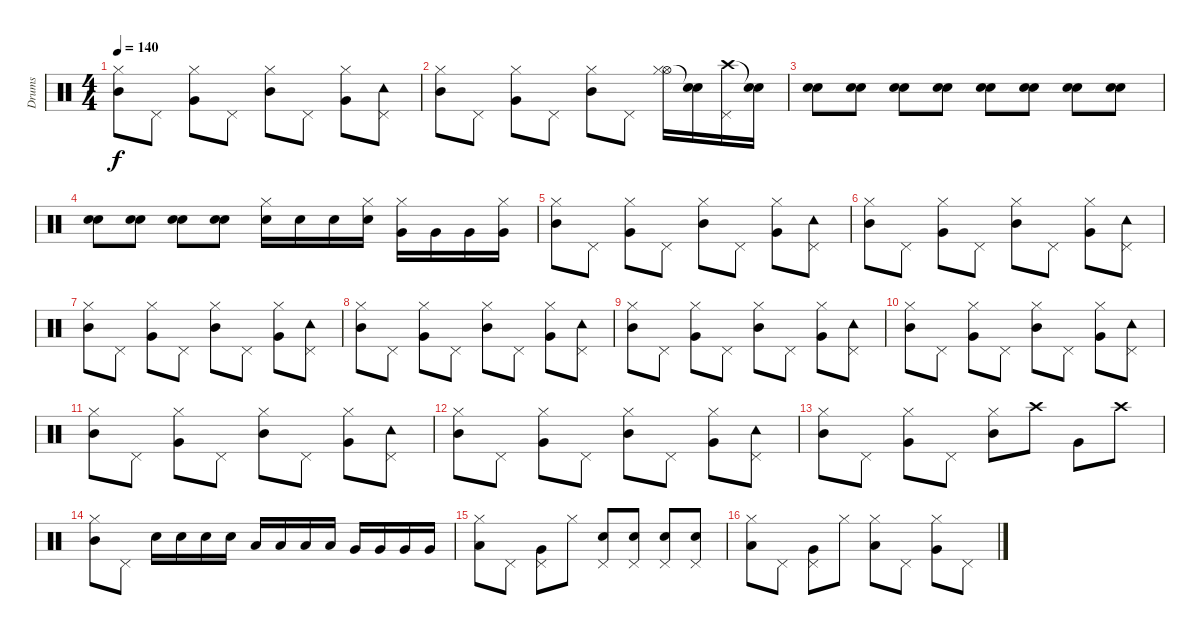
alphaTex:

\track ("Drums" "Drums") {instrument percussion}
\staff {score}
\articulation defaults
\ts (4 4)
\tempo 140
\clef neutral
\ks c
("Mid Tom (hit)" "Hi-Hat (closed)").8{dy f} "Pedal Hi-Hat (hit)".8 ("Very Low Tom (hit)" "Hi-Hat (closed)").8 "Pedal Hi-Hat (hit)".8 ("Mid Tom (hit)" "Hi-Hat (closed)").8 "Pedal Hi-Hat (hit)".8 ("Very Low Tom (hit)" "Hi-Hat (closed)").8 ("Tambourine (hit)" "Pedal Hi-Hat (hit)").8 |
("Mid Tom (hit)" "Hi-Hat (closed)").8 "Pedal Hi-Hat (hit)".8 ("Very Low Tom (hit)" "Hi-Hat (closed)").8 "Pedal Hi-Hat (hit)".8 ("Mid Tom (hit)" "Hi-Hat (closed)").8 "Pedal Hi-Hat (hit)".8 ("Hi-Hat (open)" "Hi-Hat (closed)").16 ("Snare (hit)"{t} "Electric Snare (hit)").16 ("Crash high (hit)" "Pedal Hi-Hat (hit)").16 ("Snare (hit)"{t} "Electric Snare (hit)").16 |
("Snare (hit) 2" "Electric Snare (hit)").8{volume 6} ("Snare (hit) 2" "Electric Snare (hit)").8{volume 7} ("Snare (hit) 2" "Electric Snare (hit)").8{volume 8} ("Snare (hit) 2" "Electric Snare (hit)").8{volume 9} ("Snare (hit) 2" "Electric Snare (hit)").8{volume 10} ("Snare (hit) 2" "Electric Snare (hit)").8 ("Snare (hit) 2" "Electric Snare (hit)").8 ("Snare (hit) 2" "Electric Snare (hit)").8 |
("Snare (hit) 2" "Electric Snare (hit)").8 ("Snare (hit) 2" "Electric Snare (hit)").8 ("Snare (hit) 2" "Electric Snare (hit)").8 ("Snare (hit) 2" "Electric Snare (hit)").8 ("Hi-Hat (closed)" "Electric Snare (hit)").16 "Electric Snare (hit)".16 "Electric Snare (hit)".16 ("Hi-Hat (closed)" "Electric Snare (hit)").16 ("Hi-Hat (closed)" "Very Low Tom (hit)").16 "Very Low Tom (hit)".16 "Very Low Tom (hit)".16 ("Hi-Hat (closed)" "Very Low Tom (hit)").16 |
("Mid Tom (hit)" "Hi-Hat (closed)").8 "Pedal Hi-Hat (hit)".8 ("Very Low Tom (hit)" "Hi-Hat (closed)").8 "Pedal Hi-Hat (hit)".8 ("Mid Tom (hit)" "Hi-Hat (closed)").8 "Pedal Hi-Hat (hit)".8 ("Very Low Tom (hit)" "Hi-Hat (closed)").8 ("Tambourine (hit)" "Pedal Hi-Hat (hit)").8 |
("Mid Tom (hit)" "Hi-Hat (closed)").8 "Pedal Hi-Hat (hit)".8 ("Very Low Tom (hit)" "Hi-Hat (closed)").8 "Pedal Hi-Hat (hit)".8 ("Mid Tom (hit)" "Hi-Hat (closed)").8 "Pedal Hi-Hat (hit)".8 ("Very Low Tom (hit)" "Hi-Hat (closed)").8 ("Tambourine (hit)" "Pedal Hi-Hat (hit)").8 |
("Mid Tom (hit)" "Hi-Hat (closed)").8 "Pedal Hi-Hat (hit)".8 ("Very Low Tom (hit)" "Hi-Hat (closed)").8 "Pedal Hi-Hat (hit)".8 ("Mid Tom (hit)" "Hi-Hat (closed)").8 "Pedal Hi-Hat (hit)".8 ("Very Low Tom (hit)" "Hi-Hat (closed)").8 ("Tambourine (hit)" "Pedal Hi-Hat (hit)").8 |
("Mid Tom (hit)" "Hi-Hat (closed)").8 "Pedal Hi-Hat (hit)".8 ("Very Low Tom (hit)" "Hi-Hat (closed)").8 "Pedal Hi-Hat (hit)".8 ("Mid Tom (hit)" "Hi-Hat (closed)").8 "Pedal Hi-Hat (hit)".8 ("Very Low Tom (hit)" "Hi-Hat (closed)").8 ("Tambourine (hit)" "Pedal Hi-Hat (hit)").8 |
("Mid Tom (hit)" "Hi-Hat (closed)").8 "Pedal Hi-Hat (hit)".8 ("Very Low Tom (hit)" "Hi-Hat (closed)").8 "Pedal Hi-Hat (hit)".8 ("Mid Tom (hit)" "Hi-Hat (closed)").8 "Pedal Hi-Hat (hit)".8 ("Very Low Tom (hit)" "Hi-Hat (closed)").8 ("Tambourine (hit)" "Pedal Hi-Hat (hit)").8 |
("Mid Tom (hit)" "Hi-Hat (closed)").8 "Pedal Hi-Hat (hit)".8 ("Very Low Tom (hit)" "Hi-Hat (closed)").8 "Pedal Hi-Hat (hit)".8 ("Mid Tom (hit)" "Hi-Hat (closed)").8 "Pedal Hi-Hat (hit)".8 ("Very Low Tom (hit)" "Hi-Hat (closed)").8 ("Tambourine (hit)" "Pedal Hi-Hat (hit)").8 |
("Mid Tom (hit)" "Hi-Hat (closed)").8 "Pedal Hi-Hat (hit)".8 ("Very Low Tom (hit)" "Hi-Hat (closed)").8 "Pedal Hi-Hat (hit)".8 ("Mid Tom (hit)" "Hi-Hat (closed)").8 "Pedal Hi-Hat (hit)".8 ("Very Low Tom (hit)" "Hi-Hat (closed)").8 ("Tambourine (hit)" "Pedal Hi-Hat (hit)").8 |
("Mid Tom (hit)" "Hi-Hat (closed)").8 "Pedal Hi-Hat (hit)".8 ("Very Low Tom (hit)" "Hi-Hat (closed)").8 "Pedal Hi-Hat (hit)".8 ("Mid Tom (hit)" "Hi-Hat (closed)").8 "Pedal Hi-Hat (hit)".8 ("Very Low Tom (hit)" "Hi-Hat (closed)").8 ("Tambourine (hit)" "Pedal Hi-Hat (hit)").8 |
("Mid Tom (hit)" "Hi-Hat (closed)").8 "Pedal Hi-Hat (hit)".8 ("Very Low Tom (hit)" "Hi-Hat (closed)").8 "Pedal Hi-Hat (hit)".8 ("Mid Tom (hit)" "Hi-Hat (closed)").8 "Crash high (hit)".8 "Very Low Tom (hit)".8 "Crash high (hit)".8 |
("Mid Tom (hit)" "Hi-Hat (closed)").8 "Pedal Hi-Hat (hit)".8 "Electric Snare (hit)".16 "Electric Snare (hit)".16 "Electric Snare (hit)".16 "Electric Snare (hit)".16 "Low Floor Tom (hit)".16 "Low Floor Tom (hit)".16 "Low Floor Tom (hit)".16 "Low Floor Tom (hit)".16 "Very Low Tom (hit)".16 "Very Low Tom (hit)".16 "Very Low Tom (hit)".16 "Very Low Tom (hit)".16 |
("Low Floor Tom (hit)" "Hi-Hat (closed)").8 "Pedal Hi-Hat (hit)".8 ("Very Low Tom (hit)" "Pedal Hi-Hat (hit)").8 "Hi-Hat (closed)".8 ("Snare (hit) 2" "Pedal Hi-Hat (hit)").8 ("Snare (hit) 2" "Pedal Hi-Hat (hit)").8 ("Snare (hit) 2" "Pedal Hi-Hat (hit)").8 ("Snare (hit) 2" "Pedal Hi-Hat (hit)").8 |
("Low Floor Tom (hit)" "Hi-Hat (closed)").8 "Pedal Hi-Hat (hit)".8 ("Very Low Tom (hit)" "Pedal Hi-Hat (hit)").8 "Hi-Hat (closed)".8 ("Low Floor Tom (hit)" "Hi-Hat (closed)").8 "Pedal Hi-Hat (hit)".8 ("Very Low Tom (hit)" "Hi-Hat (closed)").8 "Pedal Hi-Hat (hit)".8
